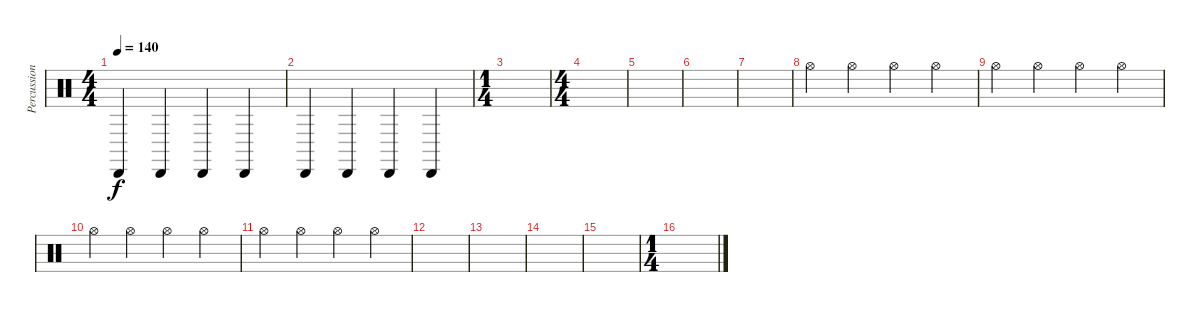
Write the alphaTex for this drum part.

\track ("Percussion" "Percussion") {instrument percussion}
\staff {score}
\articulation defaults
\ts (4 4)
\tempo 140
\clef neutral
\ks c "Cabasa (hit)".4{dy f} "Cabasa (hit)".4 "Cabasa (hit)".4 "Cabasa (hit)".4
|
"Cabasa (hit)".4 "Cabasa (hit)".4 "Cabasa (hit)".4 "Cabasa (hit)".4 |
\ts (1 4)
|
\ts (4 4)
|
|
|
|
"Hi-Hat (open)".4 "Hi-Hat (open)".4 "Hi-Hat (open)".4 "Hi-Hat (open)".4 |
"Hi-Hat (open)".4 "Hi-Hat (open)".4 "Hi-Hat (open)".4 "Hi-Hat (open)".4 |
"Hi-Hat (open)".4 "Hi-Hat (open)".4 "Hi-Hat (open)".4 "Hi-Hat (open)".4 |
"Hi-Hat (open)".4 "Hi-Hat (open)".4 "Hi-Hat (open)".4 "Hi-Hat (open)".4 |
|
|
|
|
\ts (1 4)
